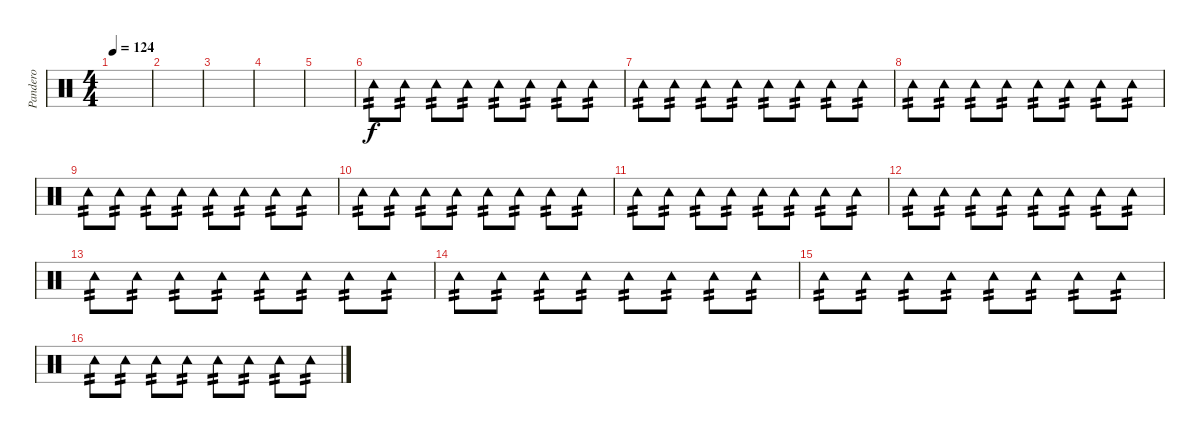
\track ("Pandero" "Pandero") {instrument percussion}
\staff {score}
\articulation defaults
\ts (4 4)
\tempo 124
\clef neutral
\ks c
|
|
|
|
|
"Tambourine (hit)".8{tp 2} "Tambourine (hit)".8{tp 2} "Tambourine (hit)".8{tp 2} "Tambourine (hit)".8{tp 2} "Tambourine (hit)".8{tp 2} "Tambourine (hit)".8{tp 2} "Tambourine (hit)".8{tp 2} "Tambourine (hit)".8{tp 2} |
"Tambourine (hit)".8{tp 2} "Tambourine (hit)".8{tp 2} "Tambourine (hit)".8{tp 2} "Tambourine (hit)".8{tp 2} "Tambourine (hit)".8{tp 2} "Tambourine (hit)".8{tp 2} "Tambourine (hit)".8{tp 2} "Tambourine (hit)".8{tp 2} |
"Tambourine (hit)".8{tp 2} "Tambourine (hit)".8{tp 2} "Tambourine (hit)".8{tp 2} "Tambourine (hit)".8{tp 2} "Tambourine (hit)".8{tp 2} "Tambourine (hit)".8{tp 2} "Tambourine (hit)".8{tp 2} "Tambourine (hit)".8{tp 2} |
"Tambourine (hit)".8{tp 2} "Tambourine (hit)".8{tp 2} "Tambourine (hit)".8{tp 2} "Tambourine (hit)".8{tp 2} "Tambourine (hit)".8{tp 2} "Tambourine (hit)".8{tp 2} "Tambourine (hit)".8{tp 2} "Tambourine (hit)".8{tp 2} |
"Tambourine (hit)".8{tp 2} "Tambourine (hit)".8{tp 2} "Tambourine (hit)".8{tp 2} "Tambourine (hit)".8{tp 2} "Tambourine (hit)".8{tp 2} "Tambourine (hit)".8{tp 2} "Tambourine (hit)".8{tp 2} "Tambourine (hit)".8{tp 2} |
"Tambourine (hit)".8{tp 2} "Tambourine (hit)".8{tp 2} "Tambourine (hit)".8{tp 2} "Tambourine (hit)".8{tp 2} "Tambourine (hit)".8{tp 2} "Tambourine (hit)".8{tp 2} "Tambourine (hit)".8{tp 2} "Tambourine (hit)".8{tp 2} |
"Tambourine (hit)".8{tp 2} "Tambourine (hit)".8{tp 2} "Tambourine (hit)".8{tp 2} "Tambourine (hit)".8{tp 2} "Tambourine (hit)".8{tp 2} "Tambourine (hit)".8{tp 2} "Tambourine (hit)".8{tp 2} "Tambourine (hit)".8{tp 2} |
"Tambourine (hit)".8{tp 2} "Tambourine (hit)".8{tp 2} "Tambourine (hit)".8{tp 2} "Tambourine (hit)".8{tp 2} "Tambourine (hit)".8{tp 2} "Tambourine (hit)".8{tp 2} "Tambourine (hit)".8{tp 2} "Tambourine (hit)".8{tp 2} |
"Tambourine (hit)".8{tp 2} "Tambourine (hit)".8{tp 2} "Tambourine (hit)".8{tp 2} "Tambourine (hit)".8{tp 2} "Tambourine (hit)".8{tp 2} "Tambourine (hit)".8{tp 2} "Tambourine (hit)".8{tp 2} "Tambourine (hit)".8{tp 2} |
"Tambourine (hit)".8{tp 2} "Tambourine (hit)".8{tp 2} "Tambourine (hit)".8{tp 2} "Tambourine (hit)".8{tp 2} "Tambourine (hit)".8{tp 2} "Tambourine (hit)".8{tp 2} "Tambourine (hit)".8{tp 2} "Tambourine (hit)".8{tp 2} |
"Tambourine (hit)".8{tp 2} "Tambourine (hit)".8{tp 2} "Tambourine (hit)".8{tp 2} "Tambourine (hit)".8{tp 2} "Tambourine (hit)".8{tp 2} "Tambourine (hit)".8{tp 2} "Tambourine (hit)".8{tp 2} "Tambourine (hit)".8{tp 2}
